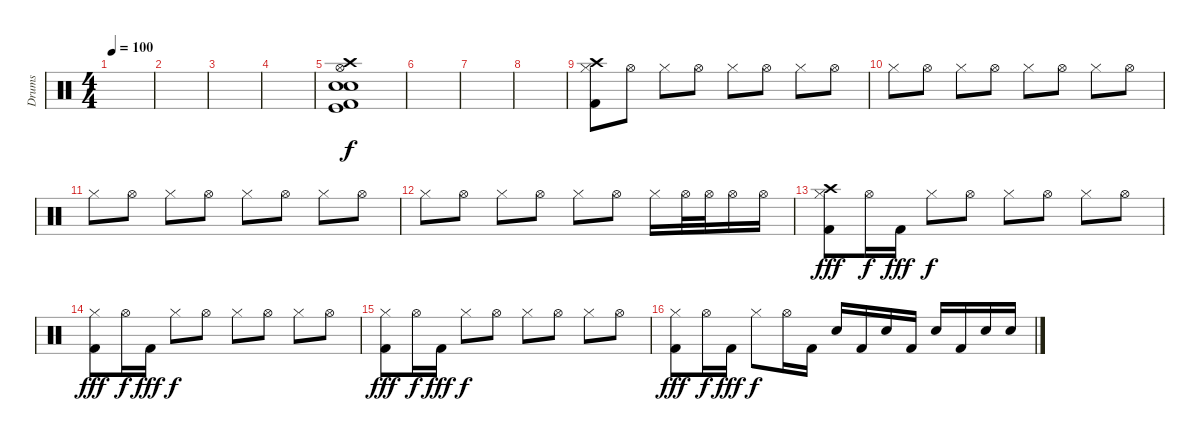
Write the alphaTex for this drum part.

\track ("Drums" "Drums") {instrument percussion}
\staff {score}
\articulation defaults
\ts (4 4)
\tempo 100
\clef neutral
\ks c
|
|
|
|
("Crash high (hit)" "Hi-Hat (open)" "Snare (hit) 2" "Snare (hit) 2" "Kick (hit)" "Kick (hit) 2").1 |
|
|
|
("Crash high (hit)" "Hi-Hat (closed)" "Kick (hit) 2").8 "Hi-Hat (open)".8{dy f} "Hi-Hat (closed)".8 "Hi-Hat (open)".8 "Hi-Hat (closed)".8 "Hi-Hat (open)".8 "Hi-Hat (closed)".8 "Hi-Hat (open)".8 |
"Hi-Hat (closed)".8 "Hi-Hat (open)".8 "Hi-Hat (closed)".8 "Hi-Hat (open)".8 "Hi-Hat (closed)".8 "Hi-Hat (open)".8 "Hi-Hat (closed)".8 "Hi-Hat (open)".8 |
"Hi-Hat (closed)".8 "Hi-Hat (open)".8 "Hi-Hat (closed)".8 "Hi-Hat (open)".8 "Hi-Hat (closed)".8 "Hi-Hat (open)".8 "Hi-Hat (closed)".8 "Hi-Hat (open)".8 |
"Hi-Hat (closed)".8 "Hi-Hat (open)".8 "Hi-Hat (closed)".8 "Hi-Hat (open)".8 "Hi-Hat (closed)".8 "Hi-Hat (open)".8 "Hi-Hat (closed)".16 "Hi-Hat (open)".32 "Hi-Hat (open)".32 "Hi-Hat (open)".16 "Hi-Hat (open)".16 |
("Crash high (hit)" "Hi-Hat (closed)" "Kick (hit) 2").8{dy fff} "Hi-Hat (open)".16{dy f} "Kick (hit) 2".16{dy fff} "Hi-Hat (closed)".8{dy f} "Hi-Hat (open)".8 "Hi-Hat (closed)".8 "Hi-Hat (open)".8 "Hi-Hat (closed)".8 "Hi-Hat (open)".8 |
("Hi-Hat (closed)" "Kick (hit) 2").8{dy fff} "Hi-Hat (open)".16{dy f} "Kick (hit) 2".16{dy fff} "Hi-Hat (closed)".8{dy f} "Hi-Hat (open)".8 "Hi-Hat (closed)".8 "Hi-Hat (open)".8 "Hi-Hat (closed)".8 "Hi-Hat (open)".8 |
("Hi-Hat (closed)" "Kick (hit) 2").8{dy fff} "Hi-Hat (open)".16{dy f} "Kick (hit) 2".16{dy fff} "Hi-Hat (closed)".8{dy f} "Hi-Hat (open)".8 "Hi-Hat (closed)".8 "Hi-Hat (open)".8 "Hi-Hat (closed)".8 "Hi-Hat (open)".8 |
("Hi-Hat (closed)" "Kick (hit) 2").8{dy fff} "Hi-Hat (open)".16{dy f} "Kick (hit) 2".16{dy fff} "Hi-Hat (closed)".8{dy f} "Hi-Hat (open)".16 "Kick (hit) 2".16 "Electric Snare (hit)".16 "Kick (hit) 2".16 "Electric Snare (hit)".16 "Kick (hit) 2".16 "Electric Snare (hit)".16 "Kick (hit) 2".16 "Electric Snare (hit)".16 "Electric Snare (hit)".16
